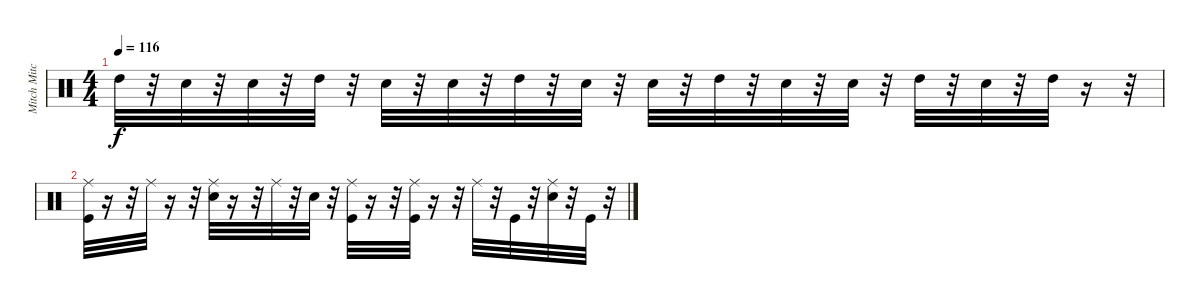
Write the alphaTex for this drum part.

\track ("Mitch Mitchell" "Mitch Mitc") {instrument percussion}
\staff {score}
\articulation defaults
\ts (4 4)
\tempo 116
\clef neutral
\ks c "High Tom (hit)".32{dy f}
r.32 "Snare (hit) 2".32 r.32 "Snare (hit) 2".32 r.32 "High Tom (hit)".32 r.32 "Snare (hit) 2".32 r.32 "Snare (hit) 2".32 r.32 "High Tom (hit)".32 r.32 "Snare (hit) 2".32 r.32 "Snare (hit) 2".32 r.32 "High Tom (hit)".32 r.32 "Snare (hit) 2".32 r.32 "Snare (hit) 2".32 r.32 "High Tom (hit)".32 r.32 "Snare (hit) 2".32 r.32 "High Tom (hit)".32 r.16 r.32 |
("Kick (hit)" "Ride (middle)").32 r.16 r.32 "Ride (middle)".32 r.16 r.32 ("Snare (hit) 2" "Ride (middle)").32 r.16 r.32 "Ride (middle)".32 r.32 "Snare (hit) 2".32 r.32 ("Kick (hit)" "Ride (middle)").32 r.16 r.32 ("Kick (hit)" "Ride (middle)").32 r.16 r.32 "Ride (middle)".32 r.32 "Kick (hit)".32 r.32 ("Snare (hit) 2" "Ride (middle)").32 r.32 "Kick (hit)".32 r.32
